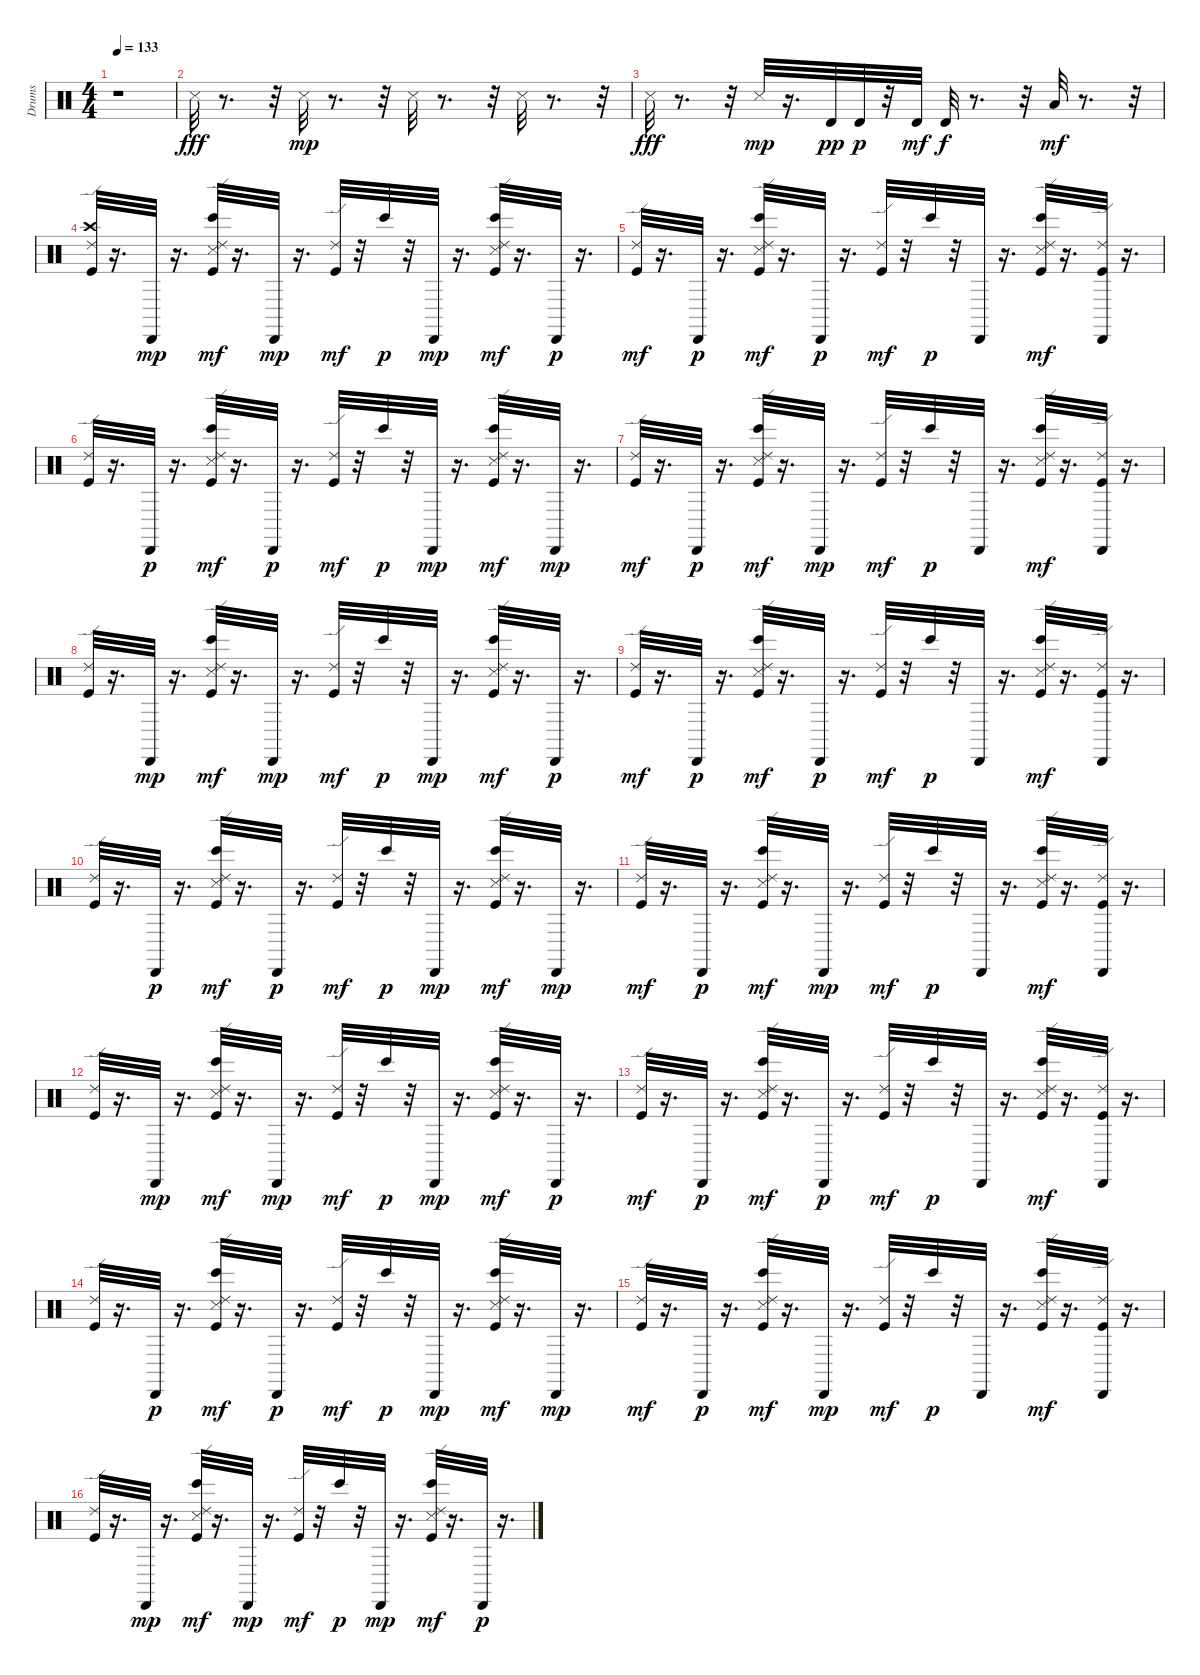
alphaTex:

\track ("Drums" "Drums") {instrument percussion}
\staff {score}
\articulation defaults
\ts (4 4)
\tempo 133
\clef neutral
\ks c
r.1{dy fff} |
"Snare (side stick) 3".32 r.8{d} r.32 "Snare (side stick) 3".32{dy mp} r.8{d} r.32 "Snare (side stick) 3".32 r.8{d} r.32 "Snare (side stick) 3".32 r.8{d} r.32 |
"Snare (side stick) 3".32{dy fff} r.8{d} r.32 "Snare (side stick) 3".32{dy mp} r.16{d} "Timbale high (hit)".32{dy pp} "Timbale high (hit)".32{dy p} r.32 "Timbale high (hit)".32{dy mf} "Timbale high (hit)".32{dy f} r.8{d} r.32 "Low Tom (hit)".32{dy mf} r.8{d} r.32 |
("Kick (hit)" "Crash high (hit)" "Ride (edge) 2").32 r.16{d} "Cabasa (hit)".32{dy mp} r.16{d} ("Kick (hit)" "Snare (side stick) 3" "Ride (edge) 2" "Bongo High (hit)").32{dy mf} r.16{d} "Cabasa (hit)".32{dy mp} r.16{d} ("Kick (hit)" "Ride (edge) 2").32{dy mf} r.32 "Bongo High (hit)".32{dy p} r.32 "Cabasa (hit)".32{dy mp} r.16{d} ("Kick (hit)" "Snare (side stick) 3" "Ride (edge) 2" "Bongo High (hit)").32{dy mf} r.16{d} "Cabasa (hit)".32{dy p} r.16{d} |
("Kick (hit)" "Ride (edge) 2").32{dy mf} r.16{d} "Cabasa (hit)".32{dy p} r.16{d} ("Kick (hit)" "Snare (side stick) 3" "Ride (edge) 2" "Bongo High (hit)").32{dy mf} r.16{d} "Cabasa (hit)".32{dy p} r.16{d} ("Kick (hit)" "Ride (edge) 2").32{dy mf} r.32 "Bongo High (hit)".32{dy p} r.32 "Cabasa (hit)".32 r.16{d} ("Kick (hit)" "Snare (side stick) 3" "Ride (edge) 2" "Bongo High (hit)").32{dy mf} r.16{d} ("Cabasa (hit)" "Kick (hit)" "Ride (edge) 2").32 r.16{d} |
("Kick (hit)" "Ride (edge) 2").32 r.16{d} "Cabasa (hit)".32{dy p} r.16{d} ("Kick (hit)" "Snare (side stick) 3" "Ride (edge) 2" "Bongo High (hit)").32{dy mf} r.16{d} "Cabasa (hit)".32{dy p} r.16{d} ("Kick (hit)" "Ride (edge) 2").32{dy mf} r.32 "Bongo High (hit)".32{dy p} r.32 "Cabasa (hit)".32{dy mp} r.16{d} ("Kick (hit)" "Snare (side stick) 3" "Ride (edge) 2" "Bongo High (hit)").32{dy mf} r.16{d} "Cabasa (hit)".32{dy mp} r.16{d} |
("Kick (hit)" "Ride (edge) 2").32{dy mf} r.16{d} "Cabasa (hit)".32{dy p} r.16{d} ("Kick (hit)" "Snare (side stick) 3" "Ride (edge) 2" "Bongo High (hit)").32{dy mf} r.16{d} "Cabasa (hit)".32{dy mp} r.16{d} ("Kick (hit)" "Ride (edge) 2").32{dy mf} r.32 "Bongo High (hit)".32{dy p} r.32 "Cabasa (hit)".32 r.16{d} ("Kick (hit)" "Snare (side stick) 3" "Ride (edge) 2" "Bongo High (hit)").32{dy mf} r.16{d} ("Cabasa (hit)" "Kick (hit)" "Ride (edge) 2").32 r.16{d} |
("Kick (hit)" "Ride (edge) 2").32 r.16{d} "Cabasa (hit)".32{dy mp} r.16{d} ("Kick (hit)" "Snare (side stick) 3" "Ride (edge) 2" "Bongo High (hit)").32{dy mf} r.16{d} "Cabasa (hit)".32{dy mp} r.16{d} ("Kick (hit)" "Ride (edge) 2").32{dy mf} r.32 "Bongo High (hit)".32{dy p} r.32 "Cabasa (hit)".32{dy mp} r.16{d} ("Kick (hit)" "Snare (side stick) 3" "Ride (edge) 2" "Bongo High (hit)").32{dy mf} r.16{d} "Cabasa (hit)".32{dy p} r.16{d} |
("Kick (hit)" "Ride (edge) 2").32{dy mf} r.16{d} "Cabasa (hit)".32{dy p} r.16{d} ("Kick (hit)" "Snare (side stick) 3" "Ride (edge) 2" "Bongo High (hit)").32{dy mf} r.16{d} "Cabasa (hit)".32{dy p} r.16{d} ("Kick (hit)" "Ride (edge) 2").32{dy mf} r.32 "Bongo High (hit)".32{dy p} r.32 "Cabasa (hit)".32 r.16{d} ("Kick (hit)" "Snare (side stick) 3" "Ride (edge) 2" "Bongo High (hit)").32{dy mf} r.16{d} ("Cabasa (hit)" "Kick (hit)" "Ride (edge) 2").32 r.16{d} |
("Kick (hit)" "Ride (edge) 2").32 r.16{d} "Cabasa (hit)".32{dy p} r.16{d} ("Kick (hit)" "Snare (side stick) 3" "Ride (edge) 2" "Bongo High (hit)").32{dy mf} r.16{d} "Cabasa (hit)".32{dy p} r.16{d} ("Kick (hit)" "Ride (edge) 2").32{dy mf} r.32 "Bongo High (hit)".32{dy p} r.32 "Cabasa (hit)".32{dy mp} r.16{d} ("Kick (hit)" "Snare (side stick) 3" "Ride (edge) 2" "Bongo High (hit)").32{dy mf} r.16{d} "Cabasa (hit)".32{dy mp} r.16{d} |
("Kick (hit)" "Ride (edge) 2").32{dy mf} r.16{d} "Cabasa (hit)".32{dy p} r.16{d} ("Kick (hit)" "Snare (side stick) 3" "Ride (edge) 2" "Bongo High (hit)").32{dy mf} r.16{d} "Cabasa (hit)".32{dy mp} r.16{d} ("Kick (hit)" "Ride (edge) 2").32{dy mf} r.32 "Bongo High (hit)".32{dy p} r.32 "Cabasa (hit)".32 r.16{d} ("Kick (hit)" "Snare (side stick) 3" "Ride (edge) 2" "Bongo High (hit)").32{dy mf} r.16{d} ("Cabasa (hit)" "Kick (hit)" "Ride (edge) 2").32 r.16{d} |
("Kick (hit)" "Ride (edge) 2").32 r.16{d} "Cabasa (hit)".32{dy mp} r.16{d} ("Kick (hit)" "Snare (side stick) 3" "Ride (edge) 2" "Bongo High (hit)").32{dy mf} r.16{d} "Cabasa (hit)".32{dy mp} r.16{d} ("Kick (hit)" "Ride (edge) 2").32{dy mf} r.32 "Bongo High (hit)".32{dy p} r.32 "Cabasa (hit)".32{dy mp} r.16{d} ("Kick (hit)" "Snare (side stick) 3" "Ride (edge) 2" "Bongo High (hit)").32{dy mf} r.16{d} "Cabasa (hit)".32{dy p} r.16{d} |
("Kick (hit)" "Ride (edge) 2").32{dy mf} r.16{d} "Cabasa (hit)".32{dy p} r.16{d} ("Kick (hit)" "Snare (side stick) 3" "Ride (edge) 2" "Bongo High (hit)").32{dy mf} r.16{d} "Cabasa (hit)".32{dy p} r.16{d} ("Kick (hit)" "Ride (edge) 2").32{dy mf} r.32 "Bongo High (hit)".32{dy p} r.32 "Cabasa (hit)".32 r.16{d} ("Kick (hit)" "Snare (side stick) 3" "Ride (edge) 2" "Bongo High (hit)").32{dy mf} r.16{d} ("Cabasa (hit)" "Kick (hit)" "Ride (edge) 2").32 r.16{d} |
("Kick (hit)" "Ride (edge) 2").32 r.16{d} "Cabasa (hit)".32{dy p} r.16{d} ("Kick (hit)" "Snare (side stick) 3" "Ride (edge) 2" "Bongo High (hit)").32{dy mf} r.16{d} "Cabasa (hit)".32{dy p} r.16{d} ("Kick (hit)" "Ride (edge) 2").32{dy mf} r.32 "Bongo High (hit)".32{dy p} r.32 "Cabasa (hit)".32{dy mp} r.16{d} ("Kick (hit)" "Snare (side stick) 3" "Ride (edge) 2" "Bongo High (hit)").32{dy mf} r.16{d} "Cabasa (hit)".32{dy mp} r.16{d} |
("Kick (hit)" "Ride (edge) 2").32{dy mf} r.16{d} "Cabasa (hit)".32{dy p} r.16{d} ("Kick (hit)" "Snare (side stick) 3" "Ride (edge) 2" "Bongo High (hit)").32{dy mf} r.16{d} "Cabasa (hit)".32{dy mp} r.16{d} ("Kick (hit)" "Ride (edge) 2").32{dy mf} r.32 "Bongo High (hit)".32{dy p} r.32 "Cabasa (hit)".32 r.16{d} ("Kick (hit)" "Snare (side stick) 3" "Ride (edge) 2" "Bongo High (hit)").32{dy mf} r.16{d} ("Cabasa (hit)" "Kick (hit)" "Ride (edge) 2").32 r.16{d} |
("Kick (hit)" "Ride (edge) 2").32 r.16{d} "Cabasa (hit)".32{dy mp} r.16{d} ("Kick (hit)" "Snare (side stick) 3" "Ride (edge) 2" "Bongo High (hit)").32{dy mf} r.16{d} "Cabasa (hit)".32{dy mp} r.16{d} ("Kick (hit)" "Ride (edge) 2").32{dy mf} r.32 "Bongo High (hit)".32{dy p} r.32 "Cabasa (hit)".32{dy mp} r.16{d} ("Kick (hit)" "Snare (side stick) 3" "Ride (edge) 2" "Bongo High (hit)").32{dy mf} r.16{d} "Cabasa (hit)".32{dy p} r.16{d}
